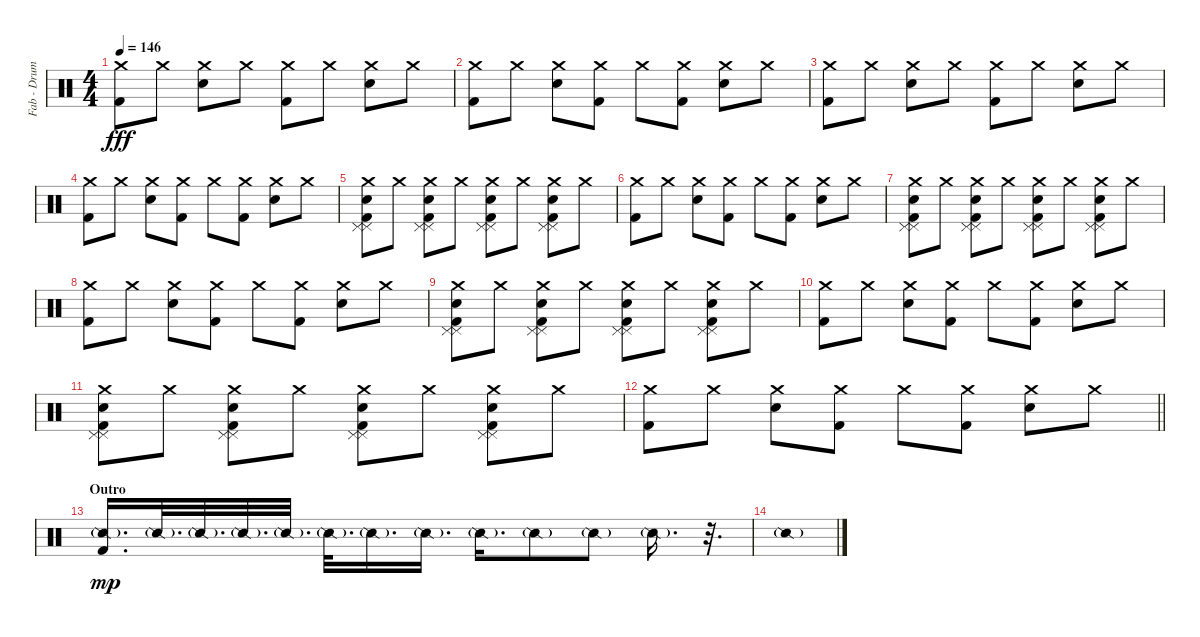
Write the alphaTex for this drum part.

\track ("Fab - Drums MIDI" "Fab - Drum") {instrument percussion}
\staff {score}
\articulation defaults
\ts (4 4)
\tempo 146
\clef neutral
\ks c
("Crash medium (hit)" "Kick (hit) 2").8{dy fff} "Crash medium (hit)".8 ("Crash medium (hit)" "Snare (hit) 2").8 "Crash medium (hit)".8 ("Crash medium (hit)" "Kick (hit) 2").8 "Crash medium (hit)".8 ("Crash medium (hit)" "Snare (hit) 2").8 "Crash medium (hit)".8 |
("Crash medium (hit)" "Kick (hit) 2").8 "Crash medium (hit)".8 ("Crash medium (hit)" "Snare (hit) 2").8 ("Crash medium (hit)" "Kick (hit) 2").8 "Crash medium (hit)".8 ("Crash medium (hit)" "Kick (hit) 2").8 ("Crash medium (hit)" "Snare (hit) 2").8 "Crash medium (hit)".8 |
("Crash medium (hit)" "Kick (hit) 2").8 "Crash medium (hit)".8 ("Crash medium (hit)" "Snare (hit) 2").8 "Crash medium (hit)".8 ("Crash medium (hit)" "Kick (hit) 2").8 "Crash medium (hit)".8 ("Crash medium (hit)" "Snare (hit) 2").8 "Crash medium (hit)".8 |
("Crash medium (hit)" "Kick (hit) 2").8 "Crash medium (hit)".8 ("Crash medium (hit)" "Snare (hit) 2").8 ("Crash medium (hit)" "Kick (hit) 2").8 "Crash medium (hit)".8 ("Crash medium (hit)" "Kick (hit) 2").8 ("Crash medium (hit)" "Snare (hit) 2").8 "Crash medium (hit)".8 |
("Crash medium (hit)" "Pedal Hi-Hat (hit)" "Snare (hit) 2" "Kick (hit) 2" "Pedal Hi-Hat (hit)").8 "Crash medium (hit)".8 ("Crash medium (hit)" "Pedal Hi-Hat (hit)" "Snare (hit) 2" "Kick (hit) 2" "Pedal Hi-Hat (hit)").8 "Crash medium (hit)".8 ("Crash medium (hit)" "Pedal Hi-Hat (hit)" "Snare (hit) 2" "Kick (hit) 2" "Pedal Hi-Hat (hit)").8 "Crash medium (hit)".8 ("Crash medium (hit)" "Pedal Hi-Hat (hit)" "Snare (hit) 2" "Kick (hit) 2" "Pedal Hi-Hat (hit)").8 "Crash medium (hit)".8 |
("Crash medium (hit)" "Kick (hit) 2").8 "Crash medium (hit)".8 ("Crash medium (hit)" "Snare (hit) 2").8 ("Crash medium (hit)" "Kick (hit) 2").8 "Crash medium (hit)".8 ("Crash medium (hit)" "Kick (hit) 2").8 ("Crash medium (hit)" "Snare (hit) 2").8 "Crash medium (hit)".8 |
("Crash medium (hit)" "Pedal Hi-Hat (hit)" "Snare (hit) 2" "Kick (hit) 2" "Pedal Hi-Hat (hit)").8 "Crash medium (hit)".8 ("Crash medium (hit)" "Pedal Hi-Hat (hit)" "Snare (hit) 2" "Kick (hit) 2" "Pedal Hi-Hat (hit)").8 "Crash medium (hit)".8 ("Crash medium (hit)" "Pedal Hi-Hat (hit)" "Snare (hit) 2" "Kick (hit) 2" "Pedal Hi-Hat (hit)").8 "Crash medium (hit)".8 ("Crash medium (hit)" "Pedal Hi-Hat (hit)" "Snare (hit) 2" "Kick (hit) 2" "Pedal Hi-Hat (hit)").8 "Crash medium (hit)".8 |
("Crash medium (hit)" "Kick (hit) 2").8 "Crash medium (hit)".8 ("Crash medium (hit)" "Snare (hit) 2").8 ("Crash medium (hit)" "Kick (hit) 2").8 "Crash medium (hit)".8 ("Crash medium (hit)" "Kick (hit) 2").8 ("Crash medium (hit)" "Snare (hit) 2").8 "Crash medium (hit)".8 |
("Crash medium (hit)" "Pedal Hi-Hat (hit)" "Snare (hit) 2" "Kick (hit) 2" "Pedal Hi-Hat (hit)").8 "Crash medium (hit)".8 ("Crash medium (hit)" "Pedal Hi-Hat (hit)" "Snare (hit) 2" "Kick (hit) 2" "Pedal Hi-Hat (hit)").8 "Crash medium (hit)".8 ("Crash medium (hit)" "Pedal Hi-Hat (hit)" "Snare (hit) 2" "Kick (hit) 2" "Pedal Hi-Hat (hit)").8 "Crash medium (hit)".8 ("Crash medium (hit)" "Pedal Hi-Hat (hit)" "Snare (hit) 2" "Kick (hit) 2" "Pedal Hi-Hat (hit)").8 "Crash medium (hit)".8 |
("Crash medium (hit)" "Kick (hit) 2").8 "Crash medium (hit)".8 ("Crash medium (hit)" "Snare (hit) 2").8 ("Crash medium (hit)" "Kick (hit) 2").8 "Crash medium (hit)".8 ("Crash medium (hit)" "Kick (hit) 2").8 ("Crash medium (hit)" "Snare (hit) 2").8 "Crash medium (hit)".8 |
("Crash medium (hit)" "Pedal Hi-Hat (hit)" "Snare (hit) 2" "Kick (hit) 2" "Pedal Hi-Hat (hit)").8 "Crash medium (hit)".8 ("Crash medium (hit)" "Pedal Hi-Hat (hit)" "Snare (hit) 2" "Kick (hit) 2" "Pedal Hi-Hat (hit)").8 "Crash medium (hit)".8 ("Crash medium (hit)" "Pedal Hi-Hat (hit)" "Snare (hit) 2" "Kick (hit) 2" "Pedal Hi-Hat (hit)").8 "Crash medium (hit)".8 ("Crash medium (hit)" "Pedal Hi-Hat (hit)" "Snare (hit) 2" "Kick (hit) 2" "Pedal Hi-Hat (hit)").8 "Crash medium (hit)".8 |
\barLineRight lightlight
("Crash medium (hit)" "Kick (hit) 2").8 "Crash medium (hit)".8 ("Crash medium (hit)" "Snare (hit) 2").8 ("Crash medium (hit)" "Kick (hit) 2").8 "Crash medium (hit)".8 ("Crash medium (hit)" "Kick (hit) 2").8 ("Crash medium (hit)" "Snare (hit) 2").8 "Crash medium (hit)".8 |
\section ("" "Outro")
("Snare (side stick) 2"{g} "Kick (hit) 2").16{d dy mp} "Snare (side stick) 2"{g}.32{d} "Snare (side stick) 2"{g}.32{d} "Snare (side stick) 2"{g}.32{d} "Snare (side stick) 2"{g}.32{d} "Snare (side stick) 2"{g}.32{d} "Snare (side stick) 2"{g}.16{d} "Snare (side stick) 2"{g}.16{d} "Snare (side stick) 2"{g}.16{d} "Snare (side stick) 2"{g}.8 "Snare (side stick) 2"{g}.8 "Snare (side stick) 2"{g}.16{d} r.32{d} |
"Snare (side stick) 2"{g}.1
